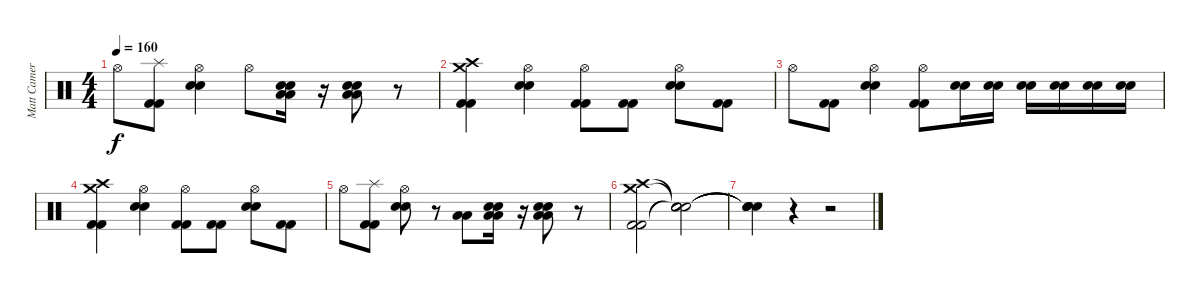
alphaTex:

\track ("Matt Cameron" "Matt Camer") {instrument percussion}
\staff {score}
\articulation defaults
\ts (4 4)
\tempo 160
\clef neutral
\ks c "Hi-Hat (open)".8{dy f}
("Kick (hit) 2" "Kick (hit) 2" "Splash (hit)").8 ("Electric Snare (hit)" "Electric Snare (hit)" "Hi-Hat (open)").4 "Hi-Hat (open)".8 ("Low Tom (hit)" "Low Tom (hit)" "Electric Snare (hit)" "Electric Snare (hit)").16 r.16 ("Low Tom (hit)" "Low Tom (hit)" "Electric Snare (hit)" "Electric Snare (hit)").8 r.8 |
("Crash medium (hit)" "Kick (hit) 2" "Kick (hit) 2" "Crash high (hit)").4 ("Electric Snare (hit)" "Electric Snare (hit)" "Hi-Hat (open)").4 ("Kick (hit) 2" "Kick (hit) 2" "Hi-Hat (open)").8 ("Kick (hit) 2" "Kick (hit) 2").8 ("Electric Snare (hit)" "Electric Snare (hit)" "Hi-Hat (open)").8 ("Kick (hit) 2" "Kick (hit) 2").8 |
"Hi-Hat (open)".8 ("Kick (hit) 2" "Kick (hit) 2").8 ("Electric Snare (hit)" "Electric Snare (hit)" "Hi-Hat (open)").4 ("Kick (hit) 2" "Kick (hit) 2" "Hi-Hat (open)").8 ("Electric Snare (hit)" "Electric Snare (hit)").16 ("Electric Snare (hit)" "Electric Snare (hit)").16 ("Electric Snare (hit)" "Electric Snare (hit)").16 ("Electric Snare (hit)" "Electric Snare (hit)").16 ("Electric Snare (hit)" "Electric Snare (hit)").16 ("Electric Snare (hit)" "Electric Snare (hit)").16 |
("Crash medium (hit)" "Kick (hit) 2" "Kick (hit) 2" "Crash high (hit)").4 ("Electric Snare (hit)" "Electric Snare (hit)" "Hi-Hat (open)").4 ("Kick (hit) 2" "Kick (hit) 2" "Hi-Hat (open)").8 ("Kick (hit) 2" "Kick (hit) 2").8 ("Electric Snare (hit)" "Electric Snare (hit)" "Hi-Hat (open)").8 ("Kick (hit) 2" "Kick (hit) 2").8 |
"Hi-Hat (open)".8 ("Kick (hit) 2" "Kick (hit) 2" "Splash (hit)").8 ("Electric Snare (hit)" "Electric Snare (hit)" "Hi-Hat (open)").8 r.8 ("Low Tom (hit)" "Low Tom (hit)").8 ("Low Tom (hit)" "Low Tom (hit)" "Electric Snare (hit)" "Electric Snare (hit)").16 r.16 ("Low Tom (hit)" "Low Tom (hit)" "Electric Snare (hit)" "Electric Snare (hit)").8 r.8 |
("Crash medium (hit)" "Kick (hit) 2" "Kick (hit) 2" "Crash high (hit)").2 ("Snare (hit)"{t} "Snare (hit)"{t} "Snare (hit)"{t} "Snare (hit)"{t}).2 |
("Snare (hit)"{t} "Snare (hit)"{t} "Snare (hit)"{t} "Snare (hit)"{t}).4 r.4 r.2
